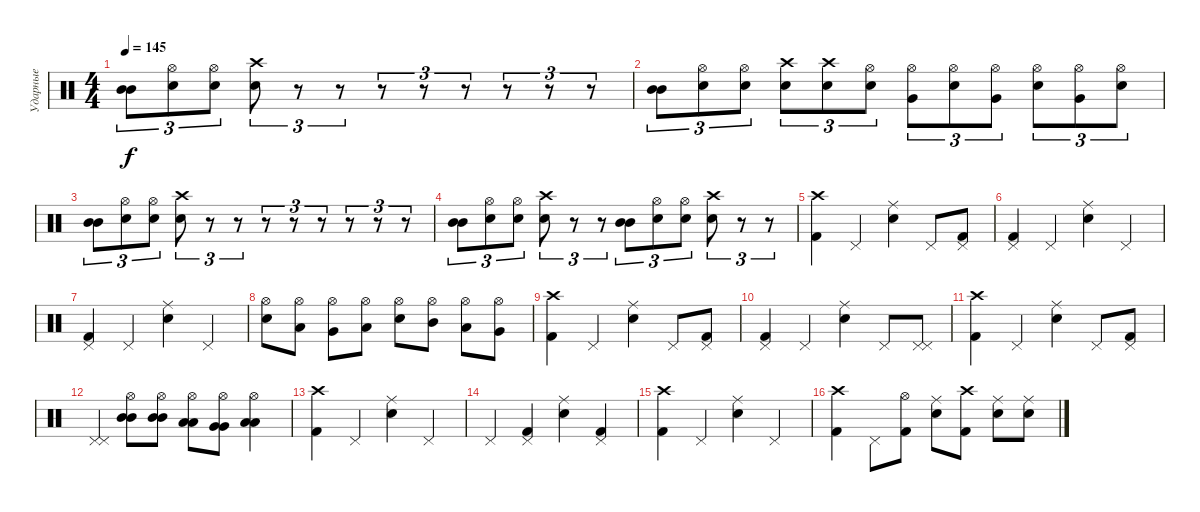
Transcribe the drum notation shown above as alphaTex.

\track ("Ударные" "Ударные") {instrument percussion}
\staff {score}
\articulation defaults
\ts (4 4)
\tempo 145
\clef neutral
\ks c
("Mid Tom (hit)" "Mid Tom (hit)").8{tu (3 2) dy f} ("Electric Snare (hit)" "Hi-Hat (open)").8{tu (3 2)} ("Electric Snare (hit)" "Hi-Hat (open)").8{tu (3 2)} ("Electric Snare (hit)" "Crash high (hit)").8{tu (3 2)} r.8{tu (3 2)} r.8{tu (3 2)} r.8{tu (3 2)} r.8{tu (3 2)} r.8{tu (3 2)} r.8{tu (3 2)} r.8{tu (3 2)} r.8{tu (3 2)} |
("Mid Tom (hit)" "Mid Tom (hit)").8{tu (3 2)} ("Electric Snare (hit)" "Hi-Hat (open)").8{tu (3 2)} ("Electric Snare (hit)" "Hi-Hat (open)").8{tu (3 2)} ("Electric Snare (hit)" "Crash high (hit)").8{tu (3 2)} ("Electric Snare (hit)" "Crash high (hit)").8{tu (3 2)} ("Hi-Hat (open)" "Electric Snare (hit)").8{tu (3 2)} ("Hi-Hat (open)" "Very Low Tom (hit)").8{tu (3 2)} ("Hi-Hat (open)" "Electric Snare (hit)").8{tu (3 2)} ("Hi-Hat (open)" "Very Low Tom (hit)").8{tu (3 2)} ("Hi-Hat (open)" "Electric Snare (hit)").8{tu (3 2)} ("Hi-Hat (open)" "Very Low Tom (hit)").8{tu (3 2)} ("Hi-Hat (open)" "Electric Snare (hit)").8{tu (3 2)} |
("Mid Tom (hit)" "Mid Tom (hit)").8{tu (3 2)} ("Electric Snare (hit)" "Hi-Hat (open)").8{tu (3 2)} ("Electric Snare (hit)" "Hi-Hat (open)").8{tu (3 2)} ("Electric Snare (hit)" "Crash high (hit)").8{tu (3 2)} r.8{tu (3 2)} r.8{tu (3 2)} r.8{tu (3 2)} r.8{tu (3 2)} r.8{tu (3 2)} r.8{tu (3 2)} r.8{tu (3 2)} r.8{tu (3 2)} |
("Mid Tom (hit)" "Mid Tom (hit)").8{tu (3 2)} ("Electric Snare (hit)" "Hi-Hat (open)").8{tu (3 2)} ("Electric Snare (hit)" "Hi-Hat (open)").8{tu (3 2)} ("Electric Snare (hit)" "Crash high (hit)").8{tu (3 2)} r.8{tu (3 2)} r.8{tu (3 2)} ("Mid Tom (hit)" "Mid Tom (hit)").8{tu (3 2)} ("Hi-Hat (open)" "Electric Snare (hit)").8{tu (3 2)} ("Hi-Hat (open)" "Electric Snare (hit)").8{tu (3 2)} ("Crash high (hit)" "Electric Snare (hit)").8{tu (3 2)} r.8{tu (3 2)} r.8{tu (3 2)} |
("Kick (hit) 2" "Crash high (hit)").4 "Pedal Hi-Hat (hit)".4 ("Electric Snare (hit)" "Ride (middle)").4 "Pedal Hi-Hat (hit)".8 ("Kick (hit) 2" "Pedal Hi-Hat (hit)").8 |
("Kick (hit) 2" "Pedal Hi-Hat (hit)").4 "Pedal Hi-Hat (hit)".4 ("Electric Snare (hit)" "Ride (middle)").4 "Pedal Hi-Hat (hit)".4 |
("Kick (hit) 2" "Pedal Hi-Hat (hit)").4 "Pedal Hi-Hat (hit)".4 ("Electric Snare (hit)" "Ride (middle)").4 "Pedal Hi-Hat (hit)".4 |
("Electric Snare (hit)" "Hi-Hat (open)").8 ("Low Tom (hit)" "Hi-Hat (open)").8 ("Very Low Tom (hit)" "Hi-Hat (open)").8 ("Low Floor Tom (hit)" "Hi-Hat (open)").8 ("Electric Snare (hit)" "Hi-Hat (open)").8 ("Mid Tom (hit)" "Hi-Hat (open)").8 ("Low Tom (hit)" "Hi-Hat (open)").8 ("Very Low Tom (hit)" "Hi-Hat (open)").8 |
("Kick (hit) 2" "Crash high (hit)").4 "Pedal Hi-Hat (hit)".4 ("Electric Snare (hit)" "Ride (middle)").4 "Pedal Hi-Hat (hit)".8 ("Kick (hit) 2" "Pedal Hi-Hat (hit)").8 |
("Kick (hit) 2" "Pedal Hi-Hat (hit)").4 "Pedal Hi-Hat (hit)".4 ("Electric Snare (hit)" "Ride (middle)").4 "Pedal Hi-Hat (hit)".8 ("Pedal Hi-Hat (hit)" "Pedal Hi-Hat (hit)").8 |
("Kick (hit) 2" "Crash high (hit)").4 "Pedal Hi-Hat (hit)".4 ("Electric Snare (hit)" "Ride (middle)").4 "Pedal Hi-Hat (hit)".8 ("Kick (hit) 2" "Pedal Hi-Hat (hit)").8 |
("Pedal Hi-Hat (hit)" "Pedal Hi-Hat (hit)").4 ("Hi-Hat (open)" "Mid Tom (hit)" "Mid Tom (hit)").8 ("Hi-Hat (open)" "Mid Tom (hit)" "Mid Tom (hit)").8 ("Hi-Hat (open)" "Low Tom (hit)" "Low Tom (hit)").8 ("Hi-Hat (open)" "Very Low Tom (hit)" "Very Low Tom (hit)").8 ("Hi-Hat (open)" "Low Floor Tom (hit)" "Low Floor Tom (hit)").4 |
("Kick (hit) 2" "Crash high (hit)").4 "Pedal Hi-Hat (hit)".4 ("Electric Snare (hit)" "Ride (middle)").4 "Pedal Hi-Hat (hit)".4 |
"Pedal Hi-Hat (hit)".4 ("Kick (hit) 2" "Pedal Hi-Hat (hit)").4 ("Electric Snare (hit)" "Ride (middle)").4 ("Kick (hit) 2" "Pedal Hi-Hat (hit)").4 |
("Kick (hit) 2" "Crash high (hit)").4 "Pedal Hi-Hat (hit)".4 ("Electric Snare (hit)" "Ride (middle)").4 "Pedal Hi-Hat (hit)".4 |
("Kick (hit) 2" "Crash high (hit)").4 "Pedal Hi-Hat (hit)".8 ("Kick (hit) 2" "Hi-Hat (open)").8 ("Electric Snare (hit)" "Ride (middle)").8 ("Kick (hit) 2" "Crash high (hit)").8 ("Electric Snare (hit)" "Ride (middle)").8 ("Electric Snare (hit)" "Ride (middle)").8
